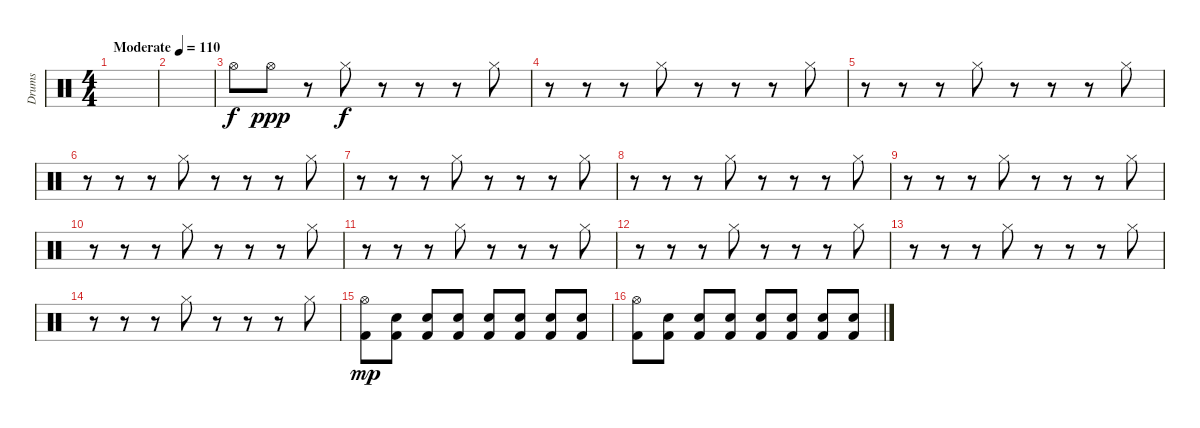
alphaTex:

\track ("Drums" "Drums") {instrument percussion}
\staff {score}
\articulation defaults
\ts (4 4)
\tempo (110 "Moderate")
\clef neutral
\ks c
|
|
"Hi-Hat (open)".8 "Hi-Hat (open)".8{dy ppp} r.8 "Hi-Hat (closed)".8{dy f} r.8 r.8 r.8 "Hi-Hat (closed)".8 |
r.8 r.8 r.8 "Hi-Hat (closed)".8 r.8 r.8 r.8 "Hi-Hat (closed)".8 |
r.8 r.8 r.8 "Hi-Hat (closed)".8 r.8 r.8 r.8 "Hi-Hat (closed)".8 |
r.8 r.8 r.8 "Hi-Hat (closed)".8 r.8 r.8 r.8 "Hi-Hat (closed)".8 |
r.8 r.8 r.8 "Hi-Hat (closed)".8 r.8 r.8 r.8 "Hi-Hat (closed)".8 |
r.8 r.8 r.8 "Hi-Hat (closed)".8 r.8 r.8 r.8 "Hi-Hat (closed)".8 |
r.8 r.8 r.8 "Hi-Hat (closed)".8 r.8 r.8 r.8 "Hi-Hat (closed)".8 |
r.8 r.8 r.8 "Hi-Hat (closed)".8 r.8 r.8 r.8 "Hi-Hat (closed)".8 |
r.8 r.8 r.8 "Hi-Hat (closed)".8 r.8 r.8 r.8 "Hi-Hat (closed)".8 |
r.8 r.8 r.8 "Hi-Hat (closed)".8 r.8 r.8 r.8 "Hi-Hat (closed)".8 |
r.8 r.8 r.8 "Hi-Hat (closed)".8 r.8 r.8 r.8 "Hi-Hat (closed)".8 |
r.8 r.8 r.8 "Hi-Hat (closed)".8 r.8 r.8 r.8 "Hi-Hat (closed)".8 |
("Kick (hit) 2" "Hi-Hat (open)").8{dy mp} ("Kick (hit) 2" "Snare (hit) 2").8 ("Kick (hit) 2" "Snare (hit) 2").8 ("Kick (hit) 2" "Snare (hit) 2").8 ("Kick (hit) 2" "Snare (hit) 2").8 ("Kick (hit) 2" "Snare (hit) 2").8 ("Kick (hit) 2" "Snare (hit) 2").8 ("Kick (hit) 2" "Snare (hit) 2").8 |
("Hi-Hat (open)" "Kick (hit) 2").8 ("Kick (hit) 2" "Snare (hit) 2").8 ("Kick (hit) 2" "Snare (hit) 2").8 ("Kick (hit) 2" "Snare (hit) 2").8 ("Kick (hit) 2" "Snare (hit) 2").8 ("Kick (hit) 2" "Snare (hit) 2").8 ("Kick (hit) 2" "Snare (hit) 2").8 ("Kick (hit) 2" "Snare (hit) 2").8
